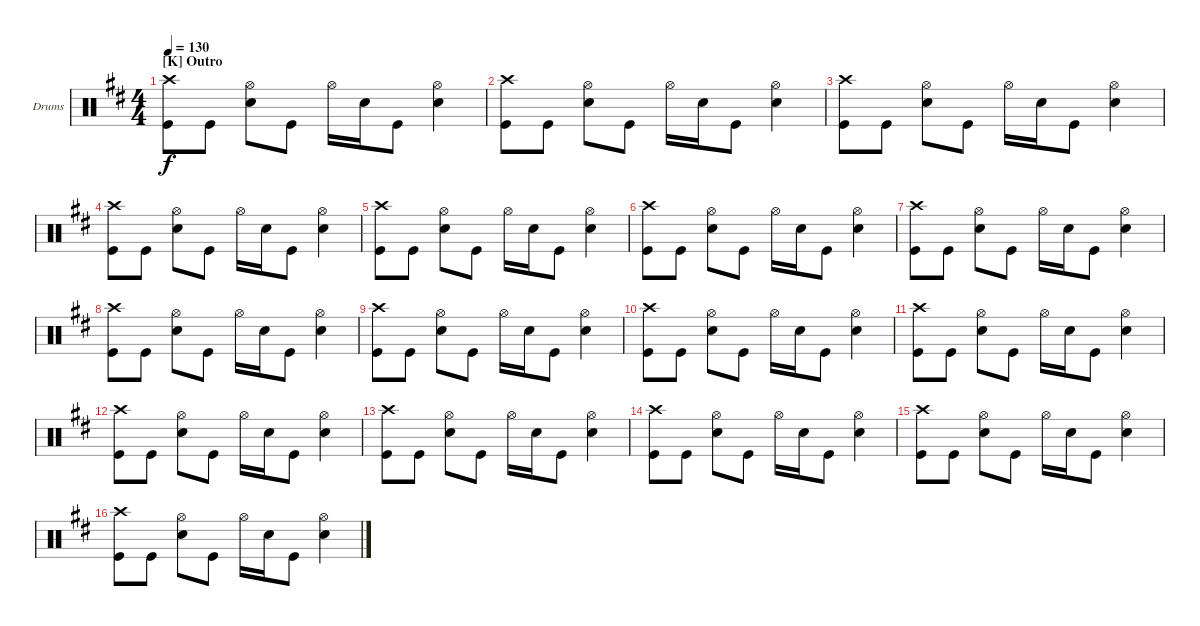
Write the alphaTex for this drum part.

\defaultSystemsLayout 4
\bracketExtendMode groupsimilarinstruments
\firstSystemTrackNameOrientation horizontal
\otherSystemsTrackNameOrientation horizontal
\track ("Drums" "Drums") {instrument percussion}
\staff {score}
\articulation defaults
\ts (4 4)
\section ("K" "Outro")
\tempo 130
\clef neutral
\scale
1.05044
\ks d
("Crash high (hit)" "Kick (hit)").8{dy f} "Kick (hit)".8 ("Hi-Hat (open)" "Snare (hit) 2").8 "Kick (hit)".8 "Hi-Hat (open)".16 "Snare (hit) 2".16 "Kick (hit)".8 ("Hi-Hat (open)" "Snare (hit) 2").4 |
\scale
0.949559 ("Crash high (hit)" "Kick (hit)").8 "Kick (hit)".8 ("Hi-Hat (open)" "Snare (hit) 2").8 "Kick (hit)".8 "Hi-Hat (open)".16 "Snare (hit) 2".16 "Kick (hit)".8 ("Hi-Hat (open)" "Snare (hit) 2").4 |
\scale
1.05044 ("Crash high (hit)" "Kick (hit)").8 "Kick (hit)".8 ("Hi-Hat (open)" "Snare (hit) 2").8 "Kick (hit)".8 "Hi-Hat (open)".16 "Snare (hit) 2".16 "Kick (hit)".8 ("Hi-Hat (open)" "Snare (hit) 2").4 |
\scale
0.949559 ("Crash high (hit)" "Kick (hit)").8 "Kick (hit)".8 ("Hi-Hat (open)" "Snare (hit) 2").8 "Kick (hit)".8 "Hi-Hat (open)".16 "Snare (hit) 2".16 "Kick (hit)".8 ("Hi-Hat (open)" "Snare (hit) 2").4 |
\scale
1.05044 ("Crash high (hit)" "Kick (hit)").8 "Kick (hit)".8 ("Hi-Hat (open)" "Snare (hit) 2").8 "Kick (hit)".8 "Hi-Hat (open)".16 "Snare (hit) 2".16 "Kick (hit)".8 ("Hi-Hat (open)" "Snare (hit) 2").4 |
\scale
0.949559 ("Crash high (hit)" "Kick (hit)").8 "Kick (hit)".8 ("Hi-Hat (open)" "Snare (hit) 2").8 "Kick (hit)".8 "Hi-Hat (open)".16 "Snare (hit) 2".16 "Kick (hit)".8 ("Hi-Hat (open)" "Snare (hit) 2").4 |
\scale
1.05044 ("Crash high (hit)" "Kick (hit)").8 "Kick (hit)".8 ("Hi-Hat (open)" "Snare (hit) 2").8 "Kick (hit)".8 "Hi-Hat (open)".16 "Snare (hit) 2".16 "Kick (hit)".8 ("Hi-Hat (open)" "Snare (hit) 2").4 |
\scale
0.949559 ("Crash high (hit)" "Kick (hit)").8 "Kick (hit)".8 ("Hi-Hat (open)" "Snare (hit) 2").8 "Kick (hit)".8 "Hi-Hat (open)".16 "Snare (hit) 2".16 "Kick (hit)".8 ("Hi-Hat (open)" "Snare (hit) 2").4 |
\scale
1.05044 ("Crash high (hit)" "Kick (hit)").8 "Kick (hit)".8 ("Hi-Hat (open)" "Snare (hit) 2").8 "Kick (hit)".8 "Hi-Hat (open)".16 "Snare (hit) 2".16 "Kick (hit)".8 ("Hi-Hat (open)" "Snare (hit) 2").4 |
\scale
0.949559 ("Crash high (hit)" "Kick (hit)").8 "Kick (hit)".8 ("Hi-Hat (open)" "Snare (hit) 2").8 "Kick (hit)".8 "Hi-Hat (open)".16 "Snare (hit) 2".16 "Kick (hit)".8 ("Hi-Hat (open)" "Snare (hit) 2").4 |
\scale
1.05044 ("Crash high (hit)" "Kick (hit)").8 "Kick (hit)".8 ("Hi-Hat (open)" "Snare (hit) 2").8 "Kick (hit)".8 "Hi-Hat (open)".16 "Snare (hit) 2".16 "Kick (hit)".8 ("Hi-Hat (open)" "Snare (hit) 2").4 |
\scale
0.949559 ("Crash high (hit)" "Kick (hit)").8 "Kick (hit)".8 ("Hi-Hat (open)" "Snare (hit) 2").8 "Kick (hit)".8 "Hi-Hat (open)".16 "Snare (hit) 2".16 "Kick (hit)".8 ("Hi-Hat (open)" "Snare (hit) 2").4 |
\scale
1.05044 ("Crash high (hit)" "Kick (hit)").8 "Kick (hit)".8 ("Hi-Hat (open)" "Snare (hit) 2").8 "Kick (hit)".8 "Hi-Hat (open)".16 "Snare (hit) 2".16 "Kick (hit)".8 ("Hi-Hat (open)" "Snare (hit) 2").4 |
\scale
0.949559 ("Crash high (hit)" "Kick (hit)").8 "Kick (hit)".8 ("Hi-Hat (open)" "Snare (hit) 2").8 "Kick (hit)".8 "Hi-Hat (open)".16 "Snare (hit) 2".16 "Kick (hit)".8 ("Hi-Hat (open)" "Snare (hit) 2").4 |
\scale
1.05044 ("Crash high (hit)" "Kick (hit)").8 "Kick (hit)".8 ("Hi-Hat (open)" "Snare (hit) 2").8 "Kick (hit)".8 "Hi-Hat (open)".16 "Snare (hit) 2".16 "Kick (hit)".8 ("Hi-Hat (open)" "Snare (hit) 2").4 |
\scale
0.949559 ("Crash high (hit)" "Kick (hit)").8 "Kick (hit)".8 ("Hi-Hat (open)" "Snare (hit) 2").8 "Kick (hit)".8 "Hi-Hat (open)".16 "Snare (hit) 2".16 "Kick (hit)".8 ("Hi-Hat (open)" "Snare (hit) 2").4
